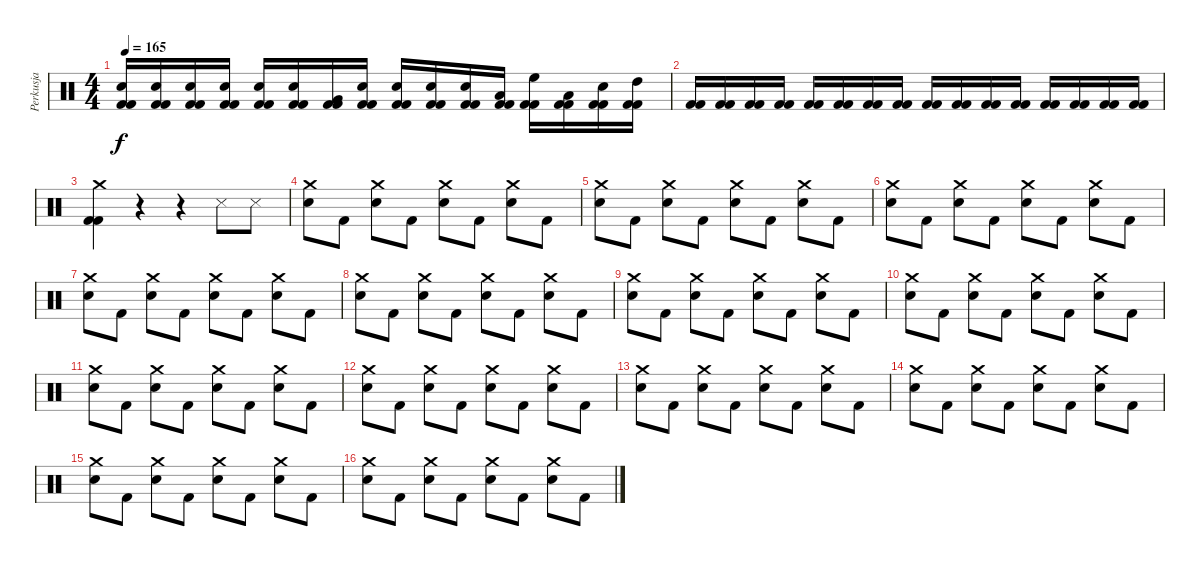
\track ("Perkusja" "Perkusja") {instrument percussion}
\staff {score}
\articulation defaults
\ts (4 4)
\tempo 165
\clef neutral
\ks c
("Snare (hit) 2" "Kick (hit) 2" "Kick (hit) 2").16{dy f} ("Snare (hit) 2" "Kick (hit) 2" "Kick (hit) 2").16 ("Electric Snare (hit)" "Kick (hit) 2" "Kick (hit) 2").16 ("Electric Snare (hit)" "Kick (hit) 2" "Kick (hit) 2").16 ("Electric Snare (hit)" "Kick (hit) 2" "Kick (hit) 2").16 ("Electric Snare (hit)" "Kick (hit) 2" "Kick (hit) 2").16 ("Very Low Tom (hit)" "Kick (hit) 2" "Kick (hit) 2").16 ("Electric Snare (hit)" "Kick (hit) 2" "Kick (hit) 2").16 ("Electric Snare (hit)" "Kick (hit) 2" "Kick (hit) 2").16 ("Snare (hit) 2" "Kick (hit) 2" "Kick (hit) 2").16 ("Electric Snare (hit)" "Kick (hit) 2" "Kick (hit) 2").16 ("Low Floor Tom (hit)" "Kick (hit) 2" "Kick (hit) 2").16 ("High Floor Tom (hit)" "Kick (hit) 2" "Kick (hit) 2").16 ("Low Floor Tom (hit)" "Kick (hit) 2" "Kick (hit) 2").16 ("Electric Snare (hit)" "Kick (hit) 2" "Kick (hit) 2").16 ("High Tom (hit)" "Kick (hit) 2" "Kick (hit) 2").16 |
("Kick (hit) 2" "Kick (hit) 2").16 ("Kick (hit) 2" "Kick (hit) 2").16 ("Kick (hit) 2" "Kick (hit) 2").16 ("Kick (hit) 2" "Kick (hit) 2").16 ("Kick (hit) 2" "Kick (hit) 2").16 ("Kick (hit) 2" "Kick (hit) 2").16 ("Kick (hit) 2" "Kick (hit) 2").16 ("Kick (hit) 2" "Kick (hit) 2").16 ("Kick (hit) 2" "Kick (hit) 2").16 ("Kick (hit) 2" "Kick (hit) 2").16 ("Kick (hit) 2" "Kick (hit) 2").16 ("Kick (hit) 2" "Kick (hit) 2").16 ("Kick (hit) 2" "Kick (hit) 2").16 ("Kick (hit) 2" "Kick (hit) 2").16 ("Kick (hit) 2" "Kick (hit) 2").16 ("Kick (hit) 2" "Kick (hit) 2").16 |
("Crash medium (hit)" "Kick (hit) 2" "Kick (hit) 2").4 r.4 r.4 "Metronome (hit)".8 "Metronome (hit)".8 |
("Crash medium (hit)" "Snare (hit) 2").8 "Kick (hit) 2".8 ("Crash medium (hit)" "Snare (hit) 2").8 "Kick (hit) 2".8 ("Crash medium (hit)" "Snare (hit) 2").8 "Kick (hit) 2".8 ("Crash medium (hit)" "Snare (hit) 2").8 "Kick (hit) 2".8 |
("Crash medium (hit)" "Snare (hit) 2").8 "Kick (hit) 2".8 ("Crash medium (hit)" "Snare (hit) 2").8 "Kick (hit) 2".8 ("Crash medium (hit)" "Snare (hit) 2").8 "Kick (hit) 2".8 ("Crash medium (hit)" "Snare (hit) 2").8 "Kick (hit) 2".8 |
("Crash medium (hit)" "Snare (hit) 2").8 "Kick (hit) 2".8 ("Crash medium (hit)" "Snare (hit) 2").8 "Kick (hit) 2".8 ("Crash medium (hit)" "Snare (hit) 2").8 "Kick (hit) 2".8 ("Crash medium (hit)" "Snare (hit) 2").8 "Kick (hit) 2".8 |
("Crash medium (hit)" "Snare (hit) 2").8 "Kick (hit) 2".8 ("Crash medium (hit)" "Snare (hit) 2").8 "Kick (hit) 2".8 ("Crash medium (hit)" "Snare (hit) 2").8 "Kick (hit) 2".8 ("Crash medium (hit)" "Snare (hit) 2").8 "Kick (hit) 2".8 |
("Crash medium (hit)" "Snare (hit) 2").8 "Kick (hit) 2".8 ("Crash medium (hit)" "Snare (hit) 2").8 "Kick (hit) 2".8 ("Crash medium (hit)" "Snare (hit) 2").8 "Kick (hit) 2".8 ("Crash medium (hit)" "Snare (hit) 2").8 "Kick (hit) 2".8 |
("Crash medium (hit)" "Snare (hit) 2").8 "Kick (hit) 2".8 ("Crash medium (hit)" "Snare (hit) 2").8 "Kick (hit) 2".8 ("Crash medium (hit)" "Snare (hit) 2").8 "Kick (hit) 2".8 ("Crash medium (hit)" "Snare (hit) 2").8 "Kick (hit) 2".8 |
("Crash medium (hit)" "Snare (hit) 2").8 "Kick (hit) 2".8 ("Crash medium (hit)" "Snare (hit) 2").8 "Kick (hit) 2".8 ("Crash medium (hit)" "Snare (hit) 2").8 "Kick (hit) 2".8 ("Crash medium (hit)" "Snare (hit) 2").8 "Kick (hit) 2".8 |
("Crash medium (hit)" "Snare (hit) 2").8 "Kick (hit) 2".8 ("Crash medium (hit)" "Snare (hit) 2").8 "Kick (hit) 2".8 ("Crash medium (hit)" "Snare (hit) 2").8 "Kick (hit) 2".8 ("Crash medium (hit)" "Snare (hit) 2").8 "Kick (hit) 2".8 |
("Crash medium (hit)" "Snare (hit) 2").8 "Kick (hit) 2".8 ("Crash medium (hit)" "Snare (hit) 2").8 "Kick (hit) 2".8 ("Crash medium (hit)" "Snare (hit) 2").8 "Kick (hit) 2".8 ("Crash medium (hit)" "Snare (hit) 2").8 "Kick (hit) 2".8 |
("Crash medium (hit)" "Snare (hit) 2").8 "Kick (hit) 2".8 ("Crash medium (hit)" "Snare (hit) 2").8 "Kick (hit) 2".8 ("Crash medium (hit)" "Snare (hit) 2").8 "Kick (hit) 2".8 ("Crash medium (hit)" "Snare (hit) 2").8 "Kick (hit) 2".8 |
("Crash medium (hit)" "Snare (hit) 2").8 "Kick (hit) 2".8 ("Crash medium (hit)" "Snare (hit) 2").8 "Kick (hit) 2".8 ("Crash medium (hit)" "Snare (hit) 2").8 "Kick (hit) 2".8 ("Crash medium (hit)" "Snare (hit) 2").8 "Kick (hit) 2".8 |
("Crash medium (hit)" "Snare (hit) 2").8 "Kick (hit) 2".8 ("Crash medium (hit)" "Snare (hit) 2").8 "Kick (hit) 2".8 ("Crash medium (hit)" "Snare (hit) 2").8 "Kick (hit) 2".8 ("Crash medium (hit)" "Snare (hit) 2").8 "Kick (hit) 2".8 |
("Crash medium (hit)" "Snare (hit) 2").8 "Kick (hit) 2".8 ("Crash medium (hit)" "Snare (hit) 2").8 "Kick (hit) 2".8 ("Crash medium (hit)" "Snare (hit) 2").8 "Kick (hit) 2".8 ("Crash medium (hit)" "Snare (hit) 2").8 "Kick (hit) 2".8
